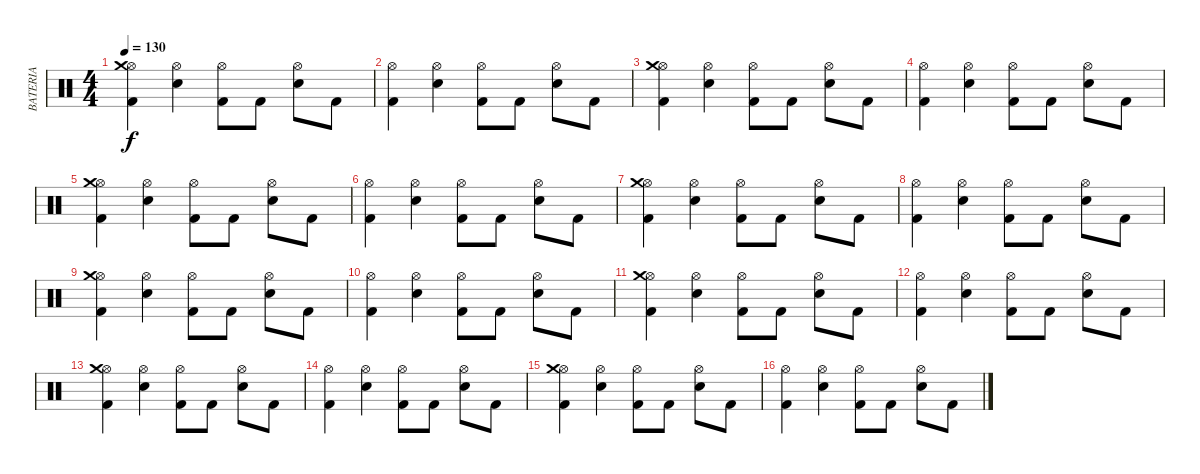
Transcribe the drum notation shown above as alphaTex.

\track ("BATERIA" "BATERIA") {instrument percussion}
\staff {score}
\articulation defaults
\ts (4 4)
\tempo 130
\clef neutral
\ks c
("Kick (hit) 2" "Hi-Hat (open)" "Crash medium (hit)").4{dy f} ("Electric Snare (hit)" "Hi-Hat (open)").4 ("Kick (hit) 2" "Hi-Hat (open)").8 "Kick (hit) 2".8 ("Electric Snare (hit)" "Hi-Hat (open)").8 "Kick (hit) 2".8 |
("Kick (hit) 2" "Hi-Hat (open)").4 ("Electric Snare (hit)" "Hi-Hat (open)").4 ("Kick (hit) 2" "Hi-Hat (open)").8 "Kick (hit) 2".8 ("Electric Snare (hit)" "Hi-Hat (open)").8 "Kick (hit) 2".8 |
("Kick (hit) 2" "Hi-Hat (open)" "Crash medium (hit)").4 ("Electric Snare (hit)" "Hi-Hat (open)").4 ("Kick (hit) 2" "Hi-Hat (open)").8 "Kick (hit) 2".8 ("Electric Snare (hit)" "Hi-Hat (open)").8 "Kick (hit) 2".8 |
("Kick (hit) 2" "Hi-Hat (open)").4 ("Electric Snare (hit)" "Hi-Hat (open)").4 ("Kick (hit) 2" "Hi-Hat (open)").8 "Kick (hit) 2".8 ("Electric Snare (hit)" "Hi-Hat (open)").8 "Kick (hit) 2".8 |
("Kick (hit) 2" "Hi-Hat (open)" "Crash medium (hit)").4 ("Electric Snare (hit)" "Hi-Hat (open)").4 ("Kick (hit) 2" "Hi-Hat (open)").8 "Kick (hit) 2".8 ("Electric Snare (hit)" "Hi-Hat (open)").8 "Kick (hit) 2".8 |
("Kick (hit) 2" "Hi-Hat (open)").4 ("Electric Snare (hit)" "Hi-Hat (open)").4 ("Kick (hit) 2" "Hi-Hat (open)").8 "Kick (hit) 2".8 ("Electric Snare (hit)" "Hi-Hat (open)").8 "Kick (hit) 2".8 |
("Kick (hit) 2" "Hi-Hat (open)" "Crash medium (hit)").4 ("Electric Snare (hit)" "Hi-Hat (open)").4 ("Kick (hit) 2" "Hi-Hat (open)").8 "Kick (hit) 2".8 ("Electric Snare (hit)" "Hi-Hat (open)").8 "Kick (hit) 2".8 |
("Kick (hit) 2" "Hi-Hat (open)").4 ("Electric Snare (hit)" "Hi-Hat (open)").4 ("Kick (hit) 2" "Hi-Hat (open)").8 "Kick (hit) 2".8 ("Electric Snare (hit)" "Hi-Hat (open)").8 "Kick (hit) 2".8 |
("Kick (hit) 2" "Hi-Hat (open)" "Crash medium (hit)").4 ("Electric Snare (hit)" "Hi-Hat (open)").4 ("Kick (hit) 2" "Hi-Hat (open)").8 "Kick (hit) 2".8 ("Electric Snare (hit)" "Hi-Hat (open)").8 "Kick (hit) 2".8 |
("Kick (hit) 2" "Hi-Hat (open)").4 ("Electric Snare (hit)" "Hi-Hat (open)").4 ("Kick (hit) 2" "Hi-Hat (open)").8 "Kick (hit) 2".8 ("Electric Snare (hit)" "Hi-Hat (open)").8 "Kick (hit) 2".8 |
("Kick (hit) 2" "Hi-Hat (open)" "Crash medium (hit)").4 ("Electric Snare (hit)" "Hi-Hat (open)").4 ("Kick (hit) 2" "Hi-Hat (open)").8 "Kick (hit) 2".8 ("Electric Snare (hit)" "Hi-Hat (open)").8 "Kick (hit) 2".8 |
("Kick (hit) 2" "Hi-Hat (open)").4 ("Electric Snare (hit)" "Hi-Hat (open)").4 ("Kick (hit) 2" "Hi-Hat (open)").8 "Kick (hit) 2".8 ("Electric Snare (hit)" "Hi-Hat (open)").8 "Kick (hit) 2".8 |
("Kick (hit) 2" "Hi-Hat (open)" "Crash medium (hit)").4 ("Electric Snare (hit)" "Hi-Hat (open)").4 ("Kick (hit) 2" "Hi-Hat (open)").8 "Kick (hit) 2".8 ("Electric Snare (hit)" "Hi-Hat (open)").8 "Kick (hit) 2".8 |
("Kick (hit) 2" "Hi-Hat (open)").4 ("Electric Snare (hit)" "Hi-Hat (open)").4 ("Kick (hit) 2" "Hi-Hat (open)").8 "Kick (hit) 2".8 ("Electric Snare (hit)" "Hi-Hat (open)").8 "Kick (hit) 2".8 |
("Kick (hit) 2" "Hi-Hat (open)" "Crash medium (hit)").4 ("Electric Snare (hit)" "Hi-Hat (open)").4 ("Kick (hit) 2" "Hi-Hat (open)").8 "Kick (hit) 2".8 ("Electric Snare (hit)" "Hi-Hat (open)").8 "Kick (hit) 2".8 |
("Kick (hit) 2" "Hi-Hat (open)").4 ("Electric Snare (hit)" "Hi-Hat (open)").4 ("Kick (hit) 2" "Hi-Hat (open)").8 "Kick (hit) 2".8 ("Electric Snare (hit)" "Hi-Hat (open)").8 "Kick (hit) 2".8
